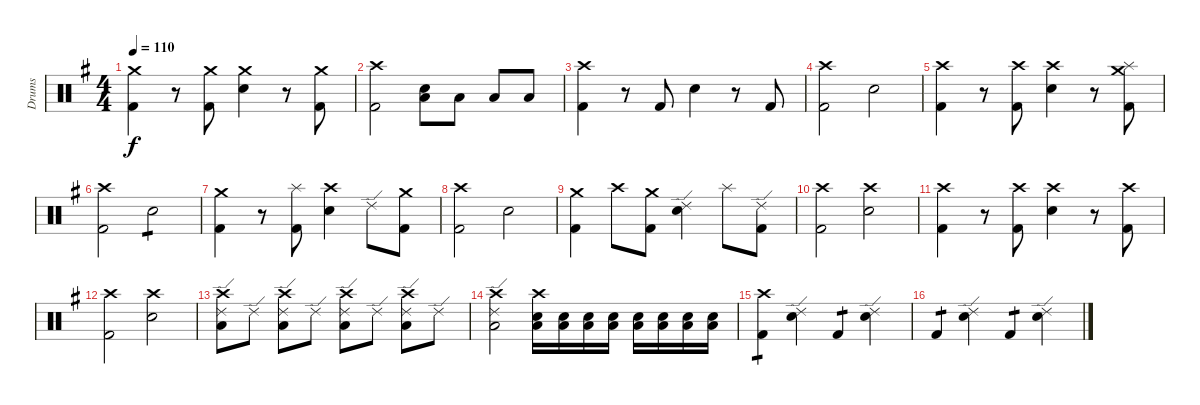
\track ("Drums" "Drums") {instrument percussion}
\staff {score}
\articulation defaults
\ts (4 4)
\tempo 110
\clef neutral
\ks g
("Kick (hit) 2" "Crash medium (hit)").4{dy f} r.8 ("Kick (hit) 2" "Crash medium (hit)").8 ("Snare (hit) 2" "Crash medium (hit)").4 r.8 ("Kick (hit) 2" "Crash medium (hit)").8 |
("Kick (hit) 2" "Crash high (hit)").2 ("Snare (hit) 2" "Low Tom (hit)").8 "Low Floor Tom (hit)".8 "Low Tom (hit)".8 "Low Floor Tom (hit)".8 |
("Kick (hit) 2" "Crash high (hit)").4 r.8 "Kick (hit) 2".8 "Snare (hit) 2".4 r.8 "Kick (hit) 2".8 |
("Kick (hit) 2" "Crash high (hit)").2 "Snare (hit) 2".2 |
("Kick (hit) 2" "Crash high (hit)").4 r.8 ("Kick (hit) 2" "Crash high (hit)").8 ("Snare (hit) 2" "Crash high (hit)").4 r.8 ("Kick (hit) 2" "Crash medium (hit)" "Splash (hit)").8 |
("Kick (hit) 2" "Crash high (hit)").2 "Snare (hit) 2".2{tp 1} |
("Kick (hit) 2" "Crash medium (hit)").4 r.8 ("Kick (hit) 2" "Splash (hit)").8 ("Snare (hit) 2" "Crash high (hit)").4 "Ride (edge) 2".8 ("Kick (hit) 2" "Crash medium (hit)").8 |
("Kick (hit) 2" "Crash high (hit)").2 "Snare (hit) 2".2 |
("Kick (hit) 2" "Crash medium (hit)").4 "Crash high (hit)".8 ("Kick (hit) 2" "Crash medium (hit)").8 ("Snare (hit) 2" "Ride (edge) 2").4 "Splash (hit)".8 ("Kick (hit) 2" "Ride (edge) 2").8 |
("Kick (hit) 2" "Crash high (hit)").2 ("Snare (hit) 2" "Crash high (hit)").2 |
("Kick (hit) 2" "Crash high (hit)").4 r.8 ("Kick (hit) 2" "Crash high (hit)").8 ("Snare (hit) 2" "Crash high (hit)").4 r.8 ("Kick (hit) 2" "Crash high (hit)").8 |
("Kick (hit) 2" "Crash high (hit)").2 ("Snare (hit) 2" "Crash high (hit)").2 |
("Low Floor Tom (hit)" "Ride (edge) 2" "Crash high (hit)").8 "Ride (edge) 2".8 ("Low Floor Tom (hit)" "Ride (edge) 2" "Crash high (hit)").8 "Ride (edge) 2".8 ("Low Floor Tom (hit)" "Ride (edge) 2" "Crash high (hit)").8 "Ride (edge) 2".8 ("Low Floor Tom (hit)" "Ride (edge) 2" "Crash high (hit)").8 "Ride (edge) 2".8 |
("Low Floor Tom (hit)" "Ride (edge) 2" "Crash high (hit)").2 ("Low Floor Tom (hit)" "Snare (hit) 2" "Crash high (hit)").16 ("Low Floor Tom (hit)" "Snare (hit) 2").16 ("Low Floor Tom (hit)" "Snare (hit) 2").16 ("Low Floor Tom (hit)" "Snare (hit) 2").16 ("Low Floor Tom (hit)" "Snare (hit) 2").16 ("Low Floor Tom (hit)" "Snare (hit) 2").16 ("Low Floor Tom (hit)" "Snare (hit) 2").16 ("Low Floor Tom (hit)" "Snare (hit) 2").16 |
("Kick (hit) 2" "Crash high (hit)").4{tp 1} ("Ride (edge) 2" "Snare (hit) 2").4 "Kick (hit) 2".4{tp 1} ("Ride (edge) 2" "Snare (hit) 2").4 |
"Kick (hit) 2".4{tp 1} ("Ride (edge) 2" "Snare (hit) 2").4 "Kick (hit) 2".4{tp 1} ("Ride (edge) 2" "Snare (hit) 2").4
